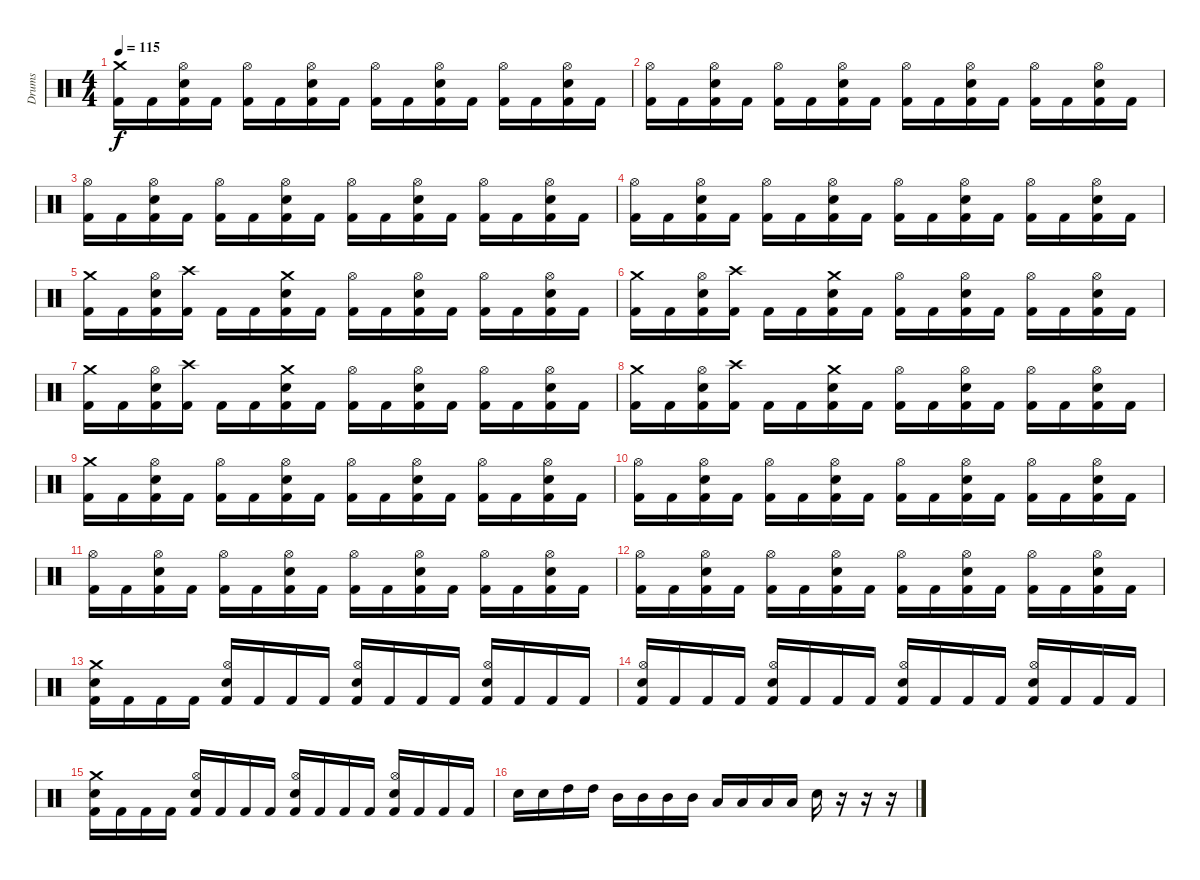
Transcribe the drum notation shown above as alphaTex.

\track ("Drums" "Drums") {instrument percussion}
\staff {score}
\articulation defaults
\ts (4 4)
\tempo 115
\clef neutral
\ks c
("Crash medium (hit)" "Kick (hit) 2").16{dy f} "Kick (hit) 2".16 ("Hi-Hat (open)" "Electric Snare (hit)" "Kick (hit) 2").16 "Kick (hit) 2".16 ("Hi-Hat (open)" "Kick (hit) 2").16 "Kick (hit) 2".16 ("Hi-Hat (open)" "Electric Snare (hit)" "Kick (hit) 2").16 "Kick (hit) 2".16 ("Hi-Hat (open)" "Kick (hit) 2").16 "Kick (hit) 2".16 ("Hi-Hat (open)" "Electric Snare (hit)" "Kick (hit) 2").16 "Kick (hit) 2".16 ("Hi-Hat (open)" "Kick (hit) 2").16 "Kick (hit) 2".16 ("Hi-Hat (open)" "Electric Snare (hit)" "Kick (hit) 2").16 "Kick (hit) 2".16 |
("Hi-Hat (open)" "Kick (hit) 2").16 "Kick (hit) 2".16 ("Hi-Hat (open)" "Electric Snare (hit)" "Kick (hit) 2").16 "Kick (hit) 2".16 ("Hi-Hat (open)" "Kick (hit) 2").16 "Kick (hit) 2".16 ("Hi-Hat (open)" "Electric Snare (hit)" "Kick (hit) 2").16 "Kick (hit) 2".16 ("Hi-Hat (open)" "Kick (hit) 2").16 "Kick (hit) 2".16 ("Hi-Hat (open)" "Electric Snare (hit)" "Kick (hit) 2").16 "Kick (hit) 2".16 ("Hi-Hat (open)" "Kick (hit) 2").16 "Kick (hit) 2".16 ("Hi-Hat (open)" "Electric Snare (hit)" "Kick (hit) 2").16 "Kick (hit) 2".16 |
("Hi-Hat (open)" "Kick (hit) 2").16 "Kick (hit) 2".16 ("Hi-Hat (open)" "Electric Snare (hit)" "Kick (hit) 2").16 "Kick (hit) 2".16 ("Hi-Hat (open)" "Kick (hit) 2").16 "Kick (hit) 2".16 ("Hi-Hat (open)" "Electric Snare (hit)" "Kick (hit) 2").16 "Kick (hit) 2".16 ("Hi-Hat (open)" "Kick (hit) 2").16 "Kick (hit) 2".16 ("Hi-Hat (open)" "Electric Snare (hit)" "Kick (hit) 2").16 "Kick (hit) 2".16 ("Hi-Hat (open)" "Kick (hit) 2").16 "Kick (hit) 2".16 ("Hi-Hat (open)" "Electric Snare (hit)" "Kick (hit) 2").16 "Kick (hit) 2".16 |
("Hi-Hat (open)" "Kick (hit) 2").16 "Kick (hit) 2".16 ("Hi-Hat (open)" "Electric Snare (hit)" "Kick (hit) 2").16 "Kick (hit) 2".16 ("Hi-Hat (open)" "Kick (hit) 2").16 "Kick (hit) 2".16 ("Hi-Hat (open)" "Electric Snare (hit)" "Kick (hit) 2").16 "Kick (hit) 2".16 ("Hi-Hat (open)" "Kick (hit) 2").16 "Kick (hit) 2".16 ("Hi-Hat (open)" "Electric Snare (hit)" "Kick (hit) 2").16 "Kick (hit) 2".16 ("Hi-Hat (open)" "Kick (hit) 2").16 "Kick (hit) 2".16 ("Hi-Hat (open)" "Electric Snare (hit)" "Kick (hit) 2").16 "Kick (hit) 2".16 |
("Crash medium (hit)" "Kick (hit) 2").16 "Kick (hit) 2".16 ("Hi-Hat (open)" "Electric Snare (hit)" "Kick (hit) 2").16 ("Crash high (hit)" "Kick (hit) 2").16 "Kick (hit) 2".16 "Kick (hit) 2".16 ("Crash medium (hit)" "Electric Snare (hit)" "Kick (hit) 2").16 "Kick (hit) 2".16 ("Hi-Hat (open)" "Kick (hit) 2").16 "Kick (hit) 2".16 ("Hi-Hat (open)" "Electric Snare (hit)" "Kick (hit) 2").16 "Kick (hit) 2".16 ("Hi-Hat (open)" "Kick (hit) 2").16 "Kick (hit) 2".16 ("Hi-Hat (open)" "Electric Snare (hit)" "Kick (hit) 2").16 "Kick (hit) 2".16 |
("Crash medium (hit)" "Kick (hit) 2").16 "Kick (hit) 2".16 ("Hi-Hat (open)" "Electric Snare (hit)" "Kick (hit) 2").16 ("Crash high (hit)" "Kick (hit) 2").16 "Kick (hit) 2".16 "Kick (hit) 2".16 ("Crash medium (hit)" "Electric Snare (hit)" "Kick (hit) 2").16 "Kick (hit) 2".16 ("Hi-Hat (open)" "Kick (hit) 2").16 "Kick (hit) 2".16 ("Hi-Hat (open)" "Electric Snare (hit)" "Kick (hit) 2").16 "Kick (hit) 2".16 ("Hi-Hat (open)" "Kick (hit) 2").16 "Kick (hit) 2".16 ("Hi-Hat (open)" "Electric Snare (hit)" "Kick (hit) 2").16 "Kick (hit) 2".16 |
("Crash medium (hit)" "Kick (hit) 2").16 "Kick (hit) 2".16 ("Hi-Hat (open)" "Electric Snare (hit)" "Kick (hit) 2").16 ("Crash high (hit)" "Kick (hit) 2").16 "Kick (hit) 2".16 "Kick (hit) 2".16 ("Crash medium (hit)" "Electric Snare (hit)" "Kick (hit) 2").16 "Kick (hit) 2".16 ("Hi-Hat (open)" "Kick (hit) 2").16 "Kick (hit) 2".16 ("Hi-Hat (open)" "Electric Snare (hit)" "Kick (hit) 2").16 "Kick (hit) 2".16 ("Hi-Hat (open)" "Kick (hit) 2").16 "Kick (hit) 2".16 ("Hi-Hat (open)" "Electric Snare (hit)" "Kick (hit) 2").16 "Kick (hit) 2".16 |
("Crash medium (hit)" "Kick (hit) 2").16 "Kick (hit) 2".16 ("Hi-Hat (open)" "Electric Snare (hit)" "Kick (hit) 2").16 ("Crash high (hit)" "Kick (hit) 2").16 "Kick (hit) 2".16 "Kick (hit) 2".16 ("Crash medium (hit)" "Electric Snare (hit)" "Kick (hit) 2").16 "Kick (hit) 2".16 ("Hi-Hat (open)" "Kick (hit) 2").16 "Kick (hit) 2".16 ("Hi-Hat (open)" "Electric Snare (hit)" "Kick (hit) 2").16 "Kick (hit) 2".16 ("Hi-Hat (open)" "Kick (hit) 2").16 "Kick (hit) 2".16 ("Hi-Hat (open)" "Electric Snare (hit)" "Kick (hit) 2").16 "Kick (hit) 2".16 |
("Crash medium (hit)" "Kick (hit) 2").16 "Kick (hit) 2".16 ("Hi-Hat (open)" "Electric Snare (hit)" "Kick (hit) 2").16 "Kick (hit) 2".16 ("Hi-Hat (open)" "Kick (hit) 2").16 "Kick (hit) 2".16 ("Hi-Hat (open)" "Electric Snare (hit)" "Kick (hit) 2").16 "Kick (hit) 2".16 ("Hi-Hat (open)" "Kick (hit) 2").16 "Kick (hit) 2".16 ("Hi-Hat (open)" "Electric Snare (hit)" "Kick (hit) 2").16 "Kick (hit) 2".16 ("Hi-Hat (open)" "Kick (hit) 2").16 "Kick (hit) 2".16 ("Hi-Hat (open)" "Electric Snare (hit)" "Kick (hit) 2").16 "Kick (hit) 2".16 |
("Hi-Hat (open)" "Kick (hit) 2").16 "Kick (hit) 2".16 ("Hi-Hat (open)" "Electric Snare (hit)" "Kick (hit) 2").16 "Kick (hit) 2".16 ("Hi-Hat (open)" "Kick (hit) 2").16 "Kick (hit) 2".16 ("Hi-Hat (open)" "Electric Snare (hit)" "Kick (hit) 2").16 "Kick (hit) 2".16 ("Hi-Hat (open)" "Kick (hit) 2").16 "Kick (hit) 2".16 ("Hi-Hat (open)" "Electric Snare (hit)" "Kick (hit) 2").16 "Kick (hit) 2".16 ("Hi-Hat (open)" "Kick (hit) 2").16 "Kick (hit) 2".16 ("Hi-Hat (open)" "Electric Snare (hit)" "Kick (hit) 2").16 "Kick (hit) 2".16 |
("Hi-Hat (open)" "Kick (hit) 2").16 "Kick (hit) 2".16 ("Hi-Hat (open)" "Electric Snare (hit)" "Kick (hit) 2").16 "Kick (hit) 2".16 ("Hi-Hat (open)" "Kick (hit) 2").16 "Kick (hit) 2".16 ("Hi-Hat (open)" "Electric Snare (hit)" "Kick (hit) 2").16 "Kick (hit) 2".16 ("Hi-Hat (open)" "Kick (hit) 2").16 "Kick (hit) 2".16 ("Hi-Hat (open)" "Electric Snare (hit)" "Kick (hit) 2").16 "Kick (hit) 2".16 ("Hi-Hat (open)" "Kick (hit) 2").16 "Kick (hit) 2".16 ("Hi-Hat (open)" "Electric Snare (hit)" "Kick (hit) 2").16 "Kick (hit) 2".16 |
("Hi-Hat (open)" "Kick (hit) 2").16 "Kick (hit) 2".16 ("Hi-Hat (open)" "Electric Snare (hit)" "Kick (hit) 2").16 "Kick (hit) 2".16 ("Hi-Hat (open)" "Kick (hit) 2").16 "Kick (hit) 2".16 ("Hi-Hat (open)" "Electric Snare (hit)" "Kick (hit) 2").16 "Kick (hit) 2".16 ("Hi-Hat (open)" "Kick (hit) 2").16 "Kick (hit) 2".16 ("Hi-Hat (open)" "Electric Snare (hit)" "Kick (hit) 2").16 "Kick (hit) 2".16 ("Hi-Hat (open)" "Kick (hit) 2").16 "Kick (hit) 2".16 ("Hi-Hat (open)" "Electric Snare (hit)" "Kick (hit) 2").16 "Kick (hit) 2".16 |
("Crash medium (hit)" "Electric Snare (hit)" "Kick (hit) 2").16 "Kick (hit) 2".16 "Kick (hit) 2".16 "Kick (hit) 2".16 ("Hi-Hat (open)" "Electric Snare (hit)" "Kick (hit) 2").16 "Kick (hit) 2".16 "Kick (hit) 2".16 "Kick (hit) 2".16 ("Hi-Hat (open)" "Electric Snare (hit)" "Kick (hit) 2").16 "Kick (hit) 2".16 "Kick (hit) 2".16 "Kick (hit) 2".16 ("Hi-Hat (open)" "Electric Snare (hit)" "Kick (hit) 2").16 "Kick (hit) 2".16 "Kick (hit) 2".16 "Kick (hit) 2".16 |
("Hi-Hat (open)" "Electric Snare (hit)" "Kick (hit) 2").16 "Kick (hit) 2".16 "Kick (hit) 2".16 "Kick (hit) 2".16 ("Hi-Hat (open)" "Electric Snare (hit)" "Kick (hit) 2").16 "Kick (hit) 2".16 "Kick (hit) 2".16 "Kick (hit) 2".16 ("Hi-Hat (open)" "Electric Snare (hit)" "Kick (hit) 2").16 "Kick (hit) 2".16 "Kick (hit) 2".16 "Kick (hit) 2".16 ("Hi-Hat (open)" "Electric Snare (hit)" "Kick (hit) 2").16 "Kick (hit) 2".16 "Kick (hit) 2".16 "Kick (hit) 2".16 |
("Crash medium (hit)" "Electric Snare (hit)" "Kick (hit) 2").16 "Kick (hit) 2".16 "Kick (hit) 2".16 "Kick (hit) 2".16 ("Hi-Hat (open)" "Electric Snare (hit)" "Kick (hit) 2").16 "Kick (hit) 2".16 "Kick (hit) 2".16 "Kick (hit) 2".16 ("Hi-Hat (open)" "Electric Snare (hit)" "Kick (hit) 2").16 "Kick (hit) 2".16 "Kick (hit) 2".16 "Kick (hit) 2".16 ("Hi-Hat (open)" "Electric Snare (hit)" "Kick (hit) 2").16 "Kick (hit) 2".16 "Kick (hit) 2".16 "Kick (hit) 2".16 |
"Electric Snare (hit)".16 "Electric Snare (hit)".16 "High Tom (hit)".16 "High Tom (hit)".16 "Mid Tom (hit)".16 "Mid Tom (hit)".16 "Mid Tom (hit)".16 "Mid Tom (hit)".16 "Low Tom (hit)".16 "Low Tom (hit)".16 "Low Tom (hit)".16 "Low Tom (hit)".16 "Electric Snare (hit)".16 r.16 r.16 r.16
